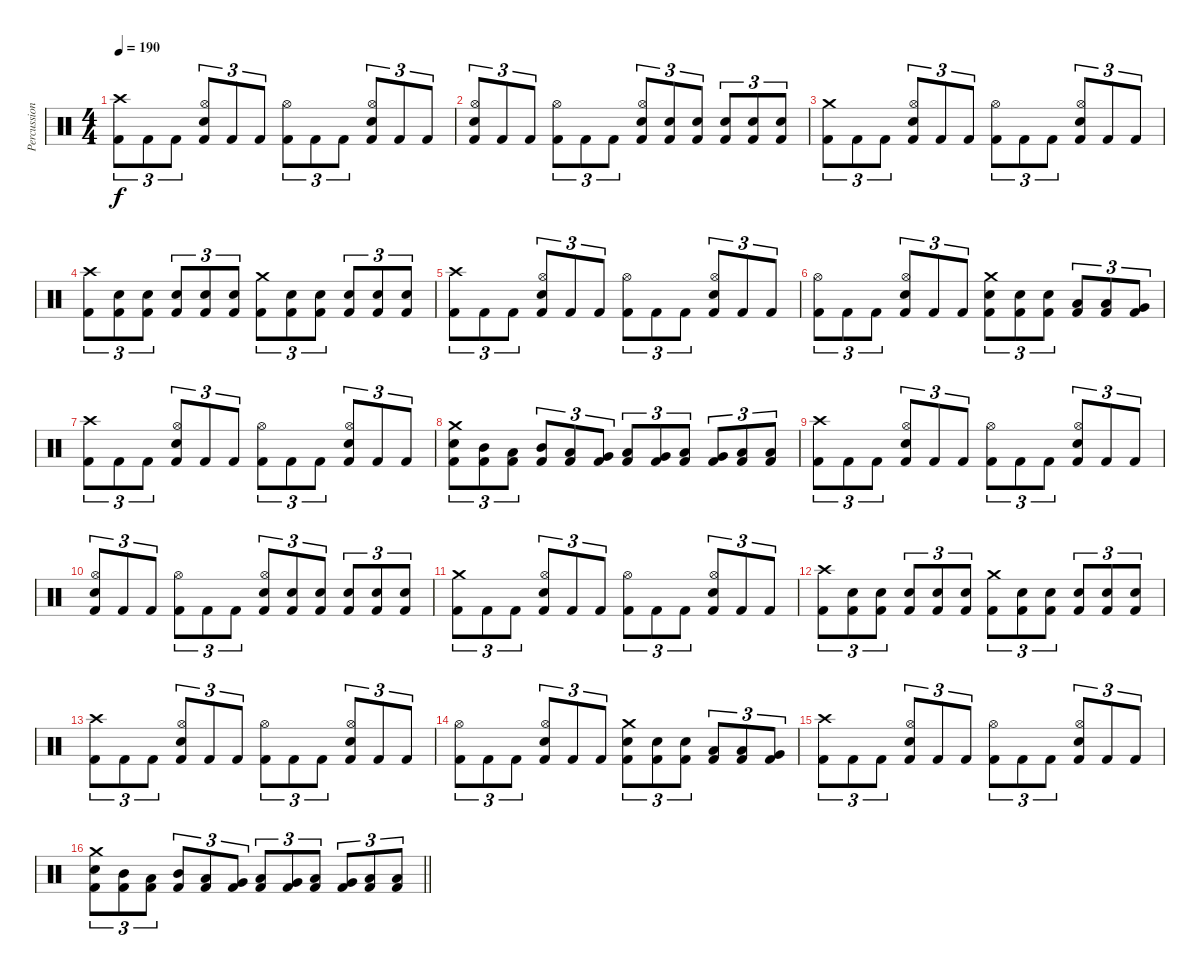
\track ("Percussion" "Percussion") {instrument percussion}
\staff {score}
\articulation defaults
\ts (4 4)
\tempo 190
\clef neutral
\ks c
("Crash high (hit)" "Kick (hit) 2").8{tu (3 2) dy f} "Kick (hit) 2".8{tu (3 2)} "Kick (hit) 2".8{tu (3 2)} ("Hi-Hat (open)" "Snare (hit) 2" "Kick (hit) 2").8{tu (3 2)} "Kick (hit) 2".8{tu (3 2)} "Kick (hit) 2".8{tu (3 2)} ("Hi-Hat (open)" "Kick (hit) 2").8{tu (3 2)} "Kick (hit) 2".8{tu (3 2)} "Kick (hit) 2".8{tu (3 2)} ("Hi-Hat (open)" "Snare (hit) 2" "Kick (hit) 2").8{tu (3 2)} "Kick (hit) 2".8{tu (3 2)} "Kick (hit) 2".8{tu (3 2)} |
("Hi-Hat (open)" "Snare (hit) 2" "Kick (hit) 2").8{tu (3 2)} "Kick (hit) 2".8{tu (3 2)} "Kick (hit) 2".8{tu (3 2)} ("Hi-Hat (open)" "Kick (hit) 2").8{tu (3 2)} "Kick (hit) 2".8{tu (3 2)} "Kick (hit) 2".8{tu (3 2)} ("Hi-Hat (open)" "Snare (hit) 2" "Kick (hit) 2").8{tu (3 2)} ("Snare (hit) 2" "Kick (hit) 2").8{tu (3 2)} ("Snare (hit) 2" "Kick (hit) 2").8{tu (3 2)} ("Snare (hit) 2" "Kick (hit) 2").8{tu (3 2)} ("Snare (hit) 2" "Kick (hit) 2").8{tu (3 2)} ("Snare (hit) 2" "Kick (hit) 2").8{tu (3 2)} |
("Crash medium (hit)" "Kick (hit) 2").8{tu (3 2)} "Kick (hit) 2".8{tu (3 2)} "Kick (hit) 2".8{tu (3 2)} ("Hi-Hat (open)" "Snare (hit) 2" "Kick (hit) 2").8{tu (3 2)} "Kick (hit) 2".8{tu (3 2)} "Kick (hit) 2".8{tu (3 2)} ("Hi-Hat (open)" "Kick (hit) 2").8{tu (3 2)} "Kick (hit) 2".8{tu (3 2)} "Kick (hit) 2".8{tu (3 2)} ("Hi-Hat (open)" "Snare (hit) 2" "Kick (hit) 2").8{tu (3 2)} "Kick (hit) 2".8{tu (3 2)} "Kick (hit) 2".8{tu (3 2)} |
("Crash high (hit)" "Kick (hit) 2").8{tu (3 2)} ("Snare (hit) 2" "Kick (hit) 2").8{tu (3 2)} ("Snare (hit) 2" "Kick (hit) 2").8{tu (3 2)} ("Snare (hit) 2" "Kick (hit) 2").8{tu (3 2)} ("Snare (hit) 2" "Kick (hit) 2").8{tu (3 2)} ("Snare (hit) 2" "Kick (hit) 2").8{tu (3 2)} ("Crash medium (hit)" "Kick (hit) 2").8{tu (3 2)} ("Snare (hit) 2" "Kick (hit) 2").8{tu (3 2)} ("Snare (hit) 2" "Kick (hit) 2").8{tu (3 2)} ("Snare (hit) 2" "Kick (hit) 2").8{tu (3 2)} ("Snare (hit) 2" "Kick (hit) 2").8{tu (3 2)} ("Snare (hit) 2" "Kick (hit) 2").8{tu (3 2)} |
("Crash high (hit)" "Kick (hit) 2").8{tu (3 2)} "Kick (hit) 2".8{tu (3 2)} "Kick (hit) 2".8{tu (3 2)} ("Hi-Hat (open)" "Snare (hit) 2" "Kick (hit) 2").8{tu (3 2)} "Kick (hit) 2".8{tu (3 2)} "Kick (hit) 2".8{tu (3 2)} ("Hi-Hat (open)" "Kick (hit) 2").8{tu (3 2)} "Kick (hit) 2".8{tu (3 2)} "Kick (hit) 2".8{tu (3 2)} ("Hi-Hat (open)" "Snare (hit) 2" "Kick (hit) 2").8{tu (3 2)} "Kick (hit) 2".8{tu (3 2)} "Kick (hit) 2".8{tu (3 2)} |
("Hi-Hat (open)" "Kick (hit) 2").8{tu (3 2)} "Kick (hit) 2".8{tu (3 2)} "Kick (hit) 2".8{tu (3 2)} ("Hi-Hat (open)" "Snare (hit) 2" "Kick (hit) 2").8{tu (3 2)} "Kick (hit) 2".8{tu (3 2)} "Kick (hit) 2".8{tu (3 2)} ("Crash medium (hit)" "Snare (hit) 2" "Kick (hit) 2").8{tu (3 2)} ("Snare (hit) 2" "Kick (hit) 2").8{tu (3 2)} ("Snare (hit) 2" "Kick (hit) 2").8{tu (3 2)} ("Low Floor Tom (hit)" "Kick (hit) 2").8{tu (3 2)} ("Low Floor Tom (hit)" "Kick (hit) 2").8{tu (3 2)} ("Very Low Tom (hit)" "Kick (hit) 2").8{tu (3 2)} |
("Crash high (hit)" "Kick (hit) 2").8{tu (3 2)} "Kick (hit) 2".8{tu (3 2)} "Kick (hit) 2".8{tu (3 2)} ("Hi-Hat (open)" "Snare (hit) 2" "Kick (hit) 2").8{tu (3 2)} "Kick (hit) 2".8{tu (3 2)} "Kick (hit) 2".8{tu (3 2)} ("Hi-Hat (open)" "Kick (hit) 2").8{tu (3 2)} "Kick (hit) 2".8{tu (3 2)} "Kick (hit) 2".8{tu (3 2)} ("Hi-Hat (open)" "Snare (hit) 2" "Kick (hit) 2").8{tu (3 2)} "Kick (hit) 2".8{tu (3 2)} "Kick (hit) 2".8{tu (3 2)} |
("Crash medium (hit)" "Snare (hit) 2" "Kick (hit) 2").8{tu (3 2)} ("Mid Tom (hit)" "Kick (hit) 2").8{tu (3 2)} ("Low Tom (hit)" "Kick (hit) 2").8{tu (3 2)} ("Mid Tom (hit)" "Kick (hit) 2").8{tu (3 2)} ("Low Tom (hit)" "Kick (hit) 2").8{tu (3 2)} ("Very Low Tom (hit)" "Kick (hit) 2").8{tu (3 2)} ("Low Tom (hit)" "Kick (hit) 2").8{tu (3 2)} ("Very Low Tom (hit)" "Kick (hit) 2").8{tu (3 2)} ("Low Floor Tom (hit)" "Kick (hit) 2").8{tu (3 2)} ("Very Low Tom (hit)" "Kick (hit) 2").8{tu (3 2)} ("Low Floor Tom (hit)" "Kick (hit) 2").8{tu (3 2)} ("Low Floor Tom (hit)" "Kick (hit) 2").8{tu (3 2)} |
("Crash high (hit)" "Kick (hit) 2").8{tu (3 2)} "Kick (hit) 2".8{tu (3 2)} "Kick (hit) 2".8{tu (3 2)} ("Hi-Hat (open)" "Snare (hit) 2" "Kick (hit) 2").8{tu (3 2)} "Kick (hit) 2".8{tu (3 2)} "Kick (hit) 2".8{tu (3 2)} ("Hi-Hat (open)" "Kick (hit) 2").8{tu (3 2)} "Kick (hit) 2".8{tu (3 2)} "Kick (hit) 2".8{tu (3 2)} ("Hi-Hat (open)" "Snare (hit) 2" "Kick (hit) 2").8{tu (3 2)} "Kick (hit) 2".8{tu (3 2)} "Kick (hit) 2".8{tu (3 2)} |
("Hi-Hat (open)" "Snare (hit) 2" "Kick (hit) 2").8{tu (3 2)} "Kick (hit) 2".8{tu (3 2)} "Kick (hit) 2".8{tu (3 2)} ("Hi-Hat (open)" "Kick (hit) 2").8{tu (3 2)} "Kick (hit) 2".8{tu (3 2)} "Kick (hit) 2".8{tu (3 2)} ("Hi-Hat (open)" "Snare (hit) 2" "Kick (hit) 2").8{tu (3 2)} ("Snare (hit) 2" "Kick (hit) 2").8{tu (3 2)} ("Snare (hit) 2" "Kick (hit) 2").8{tu (3 2)} ("Snare (hit) 2" "Kick (hit) 2").8{tu (3 2)} ("Snare (hit) 2" "Kick (hit) 2").8{tu (3 2)} ("Snare (hit) 2" "Kick (hit) 2").8{tu (3 2)} |
("Crash medium (hit)" "Kick (hit) 2").8{tu (3 2)} "Kick (hit) 2".8{tu (3 2)} "Kick (hit) 2".8{tu (3 2)} ("Hi-Hat (open)" "Snare (hit) 2" "Kick (hit) 2").8{tu (3 2)} "Kick (hit) 2".8{tu (3 2)} "Kick (hit) 2".8{tu (3 2)} ("Hi-Hat (open)" "Kick (hit) 2").8{tu (3 2)} "Kick (hit) 2".8{tu (3 2)} "Kick (hit) 2".8{tu (3 2)} ("Hi-Hat (open)" "Snare (hit) 2" "Kick (hit) 2").8{tu (3 2)} "Kick (hit) 2".8{tu (3 2)} "Kick (hit) 2".8{tu (3 2)} |
("Crash high (hit)" "Kick (hit) 2").8{tu (3 2)} ("Snare (hit) 2" "Kick (hit) 2").8{tu (3 2)} ("Snare (hit) 2" "Kick (hit) 2").8{tu (3 2)} ("Snare (hit) 2" "Kick (hit) 2").8{tu (3 2)} ("Snare (hit) 2" "Kick (hit) 2").8{tu (3 2)} ("Snare (hit) 2" "Kick (hit) 2").8{tu (3 2)} ("Crash medium (hit)" "Kick (hit) 2").8{tu (3 2)} ("Snare (hit) 2" "Kick (hit) 2").8{tu (3 2)} ("Snare (hit) 2" "Kick (hit) 2").8{tu (3 2)} ("Snare (hit) 2" "Kick (hit) 2").8{tu (3 2)} ("Snare (hit) 2" "Kick (hit) 2").8{tu (3 2)} ("Snare (hit) 2" "Kick (hit) 2").8{tu (3 2)} |
("Crash high (hit)" "Kick (hit) 2").8{tu (3 2)} "Kick (hit) 2".8{tu (3 2)} "Kick (hit) 2".8{tu (3 2)} ("Hi-Hat (open)" "Snare (hit) 2" "Kick (hit) 2").8{tu (3 2)} "Kick (hit) 2".8{tu (3 2)} "Kick (hit) 2".8{tu (3 2)} ("Hi-Hat (open)" "Kick (hit) 2").8{tu (3 2)} "Kick (hit) 2".8{tu (3 2)} "Kick (hit) 2".8{tu (3 2)} ("Hi-Hat (open)" "Snare (hit) 2" "Kick (hit) 2").8{tu (3 2)} "Kick (hit) 2".8{tu (3 2)} "Kick (hit) 2".8{tu (3 2)} |
("Hi-Hat (open)" "Kick (hit) 2").8{tu (3 2)} "Kick (hit) 2".8{tu (3 2)} "Kick (hit) 2".8{tu (3 2)} ("Hi-Hat (open)" "Snare (hit) 2" "Kick (hit) 2").8{tu (3 2)} "Kick (hit) 2".8{tu (3 2)} "Kick (hit) 2".8{tu (3 2)} ("Crash medium (hit)" "Snare (hit) 2" "Kick (hit) 2").8{tu (3 2)} ("Snare (hit) 2" "Kick (hit) 2").8{tu (3 2)} ("Snare (hit) 2" "Kick (hit) 2").8{tu (3 2)} ("Low Floor Tom (hit)" "Kick (hit) 2").8{tu (3 2)} ("Low Floor Tom (hit)" "Kick (hit) 2").8{tu (3 2)} ("Very Low Tom (hit)" "Kick (hit) 2").8{tu (3 2)} |
("Crash high (hit)" "Kick (hit) 2").8{tu (3 2)} "Kick (hit) 2".8{tu (3 2)} "Kick (hit) 2".8{tu (3 2)} ("Hi-Hat (open)" "Snare (hit) 2" "Kick (hit) 2").8{tu (3 2)} "Kick (hit) 2".8{tu (3 2)} "Kick (hit) 2".8{tu (3 2)} ("Hi-Hat (open)" "Kick (hit) 2").8{tu (3 2)} "Kick (hit) 2".8{tu (3 2)} "Kick (hit) 2".8{tu (3 2)} ("Hi-Hat (open)" "Snare (hit) 2" "Kick (hit) 2").8{tu (3 2)} "Kick (hit) 2".8{tu (3 2)} "Kick (hit) 2".8{tu (3 2)} |
\barLineRight lightlight
("Crash medium (hit)" "Snare (hit) 2" "Kick (hit) 2").8{tu (3 2)} ("Mid Tom (hit)" "Kick (hit) 2").8{tu (3 2)} ("Low Tom (hit)" "Kick (hit) 2").8{tu (3 2)} ("Mid Tom (hit)" "Kick (hit) 2").8{tu (3 2)} ("Low Tom (hit)" "Kick (hit) 2").8{tu (3 2)} ("Very Low Tom (hit)" "Kick (hit) 2").8{tu (3 2)} ("Low Tom (hit)" "Kick (hit) 2").8{tu (3 2)} ("Very Low Tom (hit)" "Kick (hit) 2").8{tu (3 2)} ("Low Floor Tom (hit)" "Kick (hit) 2").8{tu (3 2)} ("Very Low Tom (hit)" "Kick (hit) 2").8{tu (3 2)} ("Low Floor Tom (hit)" "Kick (hit) 2").8{tu (3 2)} ("Low Floor Tom (hit)" "Kick (hit) 2").8{tu (3 2)}
